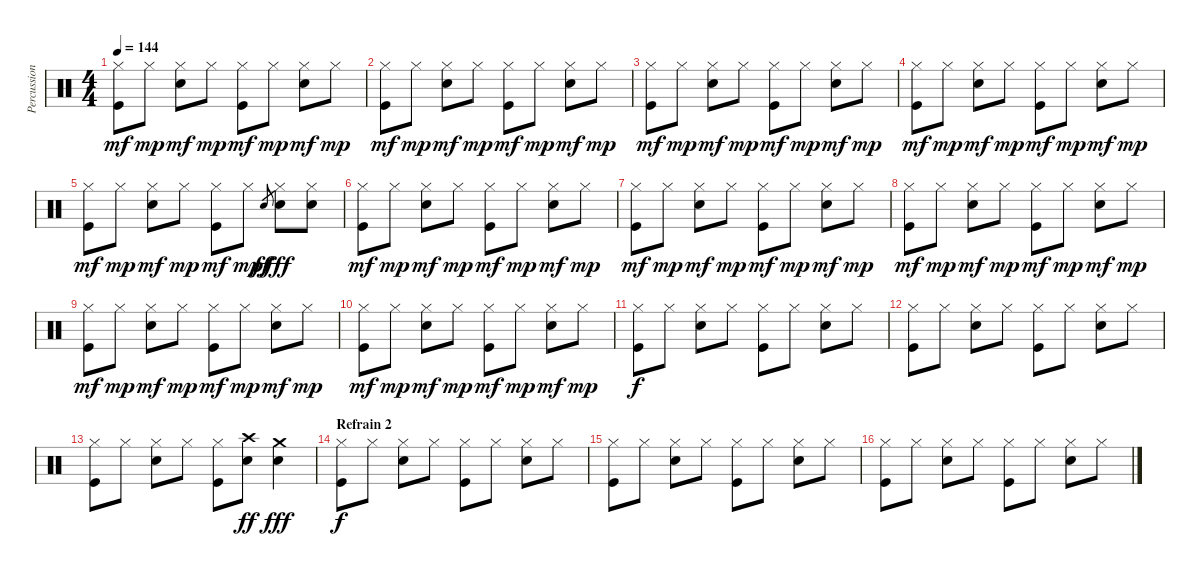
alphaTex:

\track ("Percussions" "Percussion") {instrument percussion}
\staff {score}
\articulation defaults
\ts (4 4)
\tempo 144
\clef neutral
\ks c
("Hi-Hat (closed)" "Kick (hit)").8{dy mf} "Hi-Hat (closed)".8{dy mp} ("Hi-Hat (closed)" "Snare (hit) 2").8{dy mf} "Hi-Hat (closed)".8{dy mp} ("Hi-Hat (closed)" "Kick (hit)").8{dy mf} "Hi-Hat (closed)".8{dy mp} ("Hi-Hat (closed)" "Snare (hit) 2").8{dy mf} "Hi-Hat (closed)".8{dy mp} |
("Hi-Hat (closed)" "Kick (hit)").8{dy mf} "Hi-Hat (closed)".8{dy mp} ("Hi-Hat (closed)" "Snare (hit) 2").8{dy mf} "Hi-Hat (closed)".8{dy mp} ("Hi-Hat (closed)" "Kick (hit)").8{dy mf} "Hi-Hat (closed)".8{dy mp} ("Hi-Hat (closed)" "Snare (hit) 2").8{dy mf} "Hi-Hat (closed)".8{dy mp} |
("Hi-Hat (closed)" "Kick (hit)").8{dy mf} "Hi-Hat (closed)".8{dy mp} ("Hi-Hat (closed)" "Snare (hit) 2").8{dy mf} "Hi-Hat (closed)".8{dy mp} ("Hi-Hat (closed)" "Kick (hit)").8{dy mf} "Hi-Hat (closed)".8{dy mp} ("Hi-Hat (closed)" "Snare (hit) 2").8{dy mf} "Hi-Hat (closed)".8{dy mp} |
("Hi-Hat (closed)" "Kick (hit)").8{dy mf} "Hi-Hat (closed)".8{dy mp} ("Hi-Hat (closed)" "Snare (hit) 2").8{dy mf} "Hi-Hat (closed)".8{dy mp} ("Hi-Hat (closed)" "Kick (hit)").8{dy mf} "Hi-Hat (closed)".8{dy mp} ("Hi-Hat (closed)" "Snare (hit) 2").8{dy mf} "Hi-Hat (closed)".8{dy mp} |
("Hi-Hat (closed)" "Kick (hit)").8{dy mf} "Hi-Hat (closed)".8{dy mp} ("Hi-Hat (closed)" "Snare (hit) 2").8{dy mf} "Hi-Hat (closed)".8{dy mp} ("Hi-Hat (closed)" "Kick (hit)").8{dy mf} "Hi-Hat (closed)".8{dy mp} "Snare (hit) 2".8{gr dy ff} ("Hi-Hat (closed)" "Snare (hit) 2").8{dy fff} ("Hi-Hat (closed)" "Snare (hit) 2").8 |
("Hi-Hat (closed)" "Kick (hit)").8{dy mf} "Hi-Hat (closed)".8{dy mp} ("Hi-Hat (closed)" "Snare (hit) 2").8{dy mf} "Hi-Hat (closed)".8{dy mp} ("Hi-Hat (closed)" "Kick (hit)").8{dy mf} "Hi-Hat (closed)".8{dy mp} ("Hi-Hat (closed)" "Snare (hit) 2").8{dy mf} "Hi-Hat (closed)".8{dy mp} |
("Hi-Hat (closed)" "Kick (hit)").8{dy mf} "Hi-Hat (closed)".8{dy mp} ("Hi-Hat (closed)" "Snare (hit) 2").8{dy mf} "Hi-Hat (closed)".8{dy mp} ("Hi-Hat (closed)" "Kick (hit)").8{dy mf} "Hi-Hat (closed)".8{dy mp} ("Hi-Hat (closed)" "Snare (hit) 2").8{dy mf} "Hi-Hat (closed)".8{dy mp} |
("Hi-Hat (closed)" "Kick (hit)").8{dy mf} "Hi-Hat (closed)".8{dy mp} ("Hi-Hat (closed)" "Snare (hit) 2").8{dy mf} "Hi-Hat (closed)".8{dy mp} ("Hi-Hat (closed)" "Kick (hit)").8{dy mf} "Hi-Hat (closed)".8{dy mp} ("Hi-Hat (closed)" "Snare (hit) 2").8{dy mf} "Hi-Hat (closed)".8{dy mp} |
("Hi-Hat (closed)" "Kick (hit)").8{dy mf} "Hi-Hat (closed)".8{dy mp} ("Hi-Hat (closed)" "Snare (hit) 2").8{dy mf} "Hi-Hat (closed)".8{dy mp} ("Hi-Hat (closed)" "Kick (hit)").8{dy mf} "Hi-Hat (closed)".8{dy mp} ("Hi-Hat (closed)" "Snare (hit) 2").8{dy mf} "Hi-Hat (closed)".8{dy mp} |
("Hi-Hat (closed)" "Kick (hit)").8{dy mf} "Hi-Hat (closed)".8{dy mp} ("Hi-Hat (closed)" "Snare (hit) 2").8{dy mf} "Hi-Hat (closed)".8{dy mp} ("Hi-Hat (closed)" "Kick (hit)").8{dy mf} "Hi-Hat (closed)".8{dy mp} ("Hi-Hat (closed)" "Snare (hit) 2").8{dy mf} "Hi-Hat (closed)".8{dy mp} |
("Hi-Hat (closed)" "Kick (hit)").8{dy f} "Hi-Hat (closed)".8 ("Hi-Hat (closed)" "Snare (hit) 2").8 "Hi-Hat (closed)".8 ("Hi-Hat (closed)" "Kick (hit)").8 "Hi-Hat (closed)".8 ("Hi-Hat (closed)" "Snare (hit) 2").8 "Hi-Hat (closed)".8 |
("Hi-Hat (closed)" "Kick (hit)").8 "Hi-Hat (closed)".8 ("Hi-Hat (closed)" "Snare (hit) 2").8 "Hi-Hat (closed)".8 ("Hi-Hat (closed)" "Kick (hit)").8 "Hi-Hat (closed)".8 ("Hi-Hat (closed)" "Snare (hit) 2").8 "Hi-Hat (closed)".8 |
("Hi-Hat (closed)" "Kick (hit)").8 "Hi-Hat (closed)".8 ("Hi-Hat (closed)" "Snare (hit) 2").8 "Hi-Hat (closed)".8 ("Hi-Hat (closed)" "Kick (hit)").8 ("Crash high (hit)" "Snare (hit) 2").8{dy ff} ("Crash medium (hit)" "Snare (hit) 2").4{dy fff} |
\section ("" "Refrain 2")
("Hi-Hat (closed)" "Kick (hit)").8{dy f} "Hi-Hat (closed)".8 ("Hi-Hat (closed)" "Snare (hit) 2").8 "Hi-Hat (closed)".8 ("Hi-Hat (closed)" "Kick (hit)").8 "Hi-Hat (closed)".8 ("Hi-Hat (closed)" "Snare (hit) 2").8 "Hi-Hat (closed)".8 |
("Hi-Hat (closed)" "Kick (hit)").8 "Hi-Hat (closed)".8 ("Hi-Hat (closed)" "Snare (hit) 2").8 "Hi-Hat (closed)".8 ("Hi-Hat (closed)" "Kick (hit)").8 "Hi-Hat (closed)".8 ("Hi-Hat (closed)" "Snare (hit) 2").8 "Hi-Hat (closed)".8 |
("Hi-Hat (closed)" "Kick (hit)").8 "Hi-Hat (closed)".8 ("Hi-Hat (closed)" "Snare (hit) 2").8 "Hi-Hat (closed)".8 ("Hi-Hat (closed)" "Kick (hit)").8 "Hi-Hat (closed)".8 ("Hi-Hat (closed)" "Snare (hit) 2").8 "Hi-Hat (closed)".8
